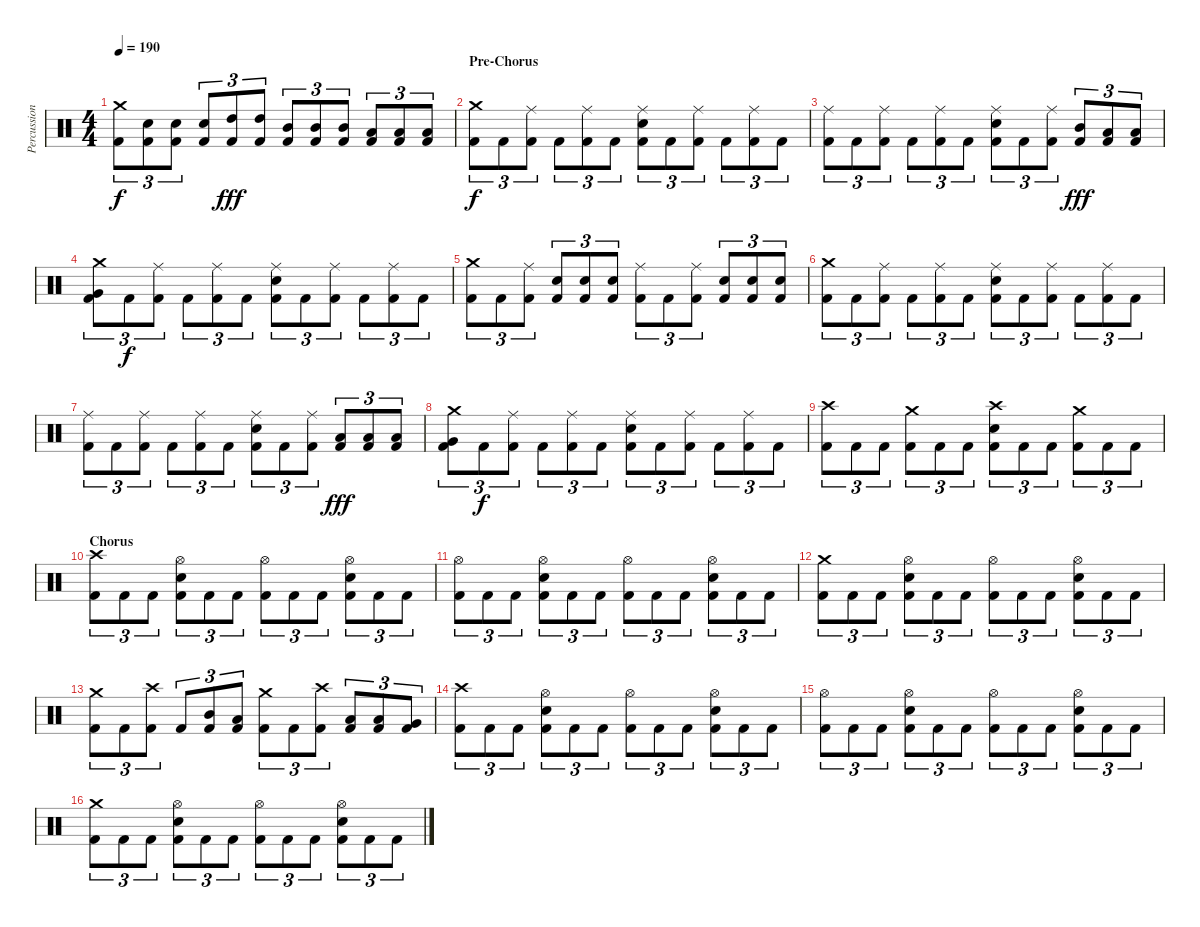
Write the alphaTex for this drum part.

\track ("Percussion" "Percussion") {instrument percussion}
\staff {score}
\articulation defaults
\ts (4 4)
\tempo 190
\clef neutral
\ks c
("Kick (hit) 2" "Crash medium (hit)").8{tu (3 2) dy f} ("Kick (hit) 2" "Electric Snare (hit)").8{tu (3 2)} ("Kick (hit) 2" "Electric Snare (hit)").8{tu (3 2)} ("Kick (hit) 2" "Electric Snare (hit)").8{tu (3 2)} ("Kick (hit) 2" "High Tom (hit)").8{tu (3 2) dy fff} ("Kick (hit) 2" "High Tom (hit)").8{tu (3 2)} ("Kick (hit) 2" "Mid Tom (hit)").8{tu (3 2)} ("Kick (hit) 2" "Mid Tom (hit)").8{tu (3 2)} ("Kick (hit) 2" "Mid Tom (hit)").8{tu (3 2)} ("Kick (hit) 2" "Low Tom (hit)").8{tu (3 2)} ("Kick (hit) 2" "Low Tom (hit)").8{tu (3 2)} ("Kick (hit) 2" "Low Tom (hit)").8{tu (3 2)} |
\section ("" "Pre-Chorus")
("Kick (hit) 2" "Crash medium (hit)").8{tu (3 2) dy f} "Kick (hit) 2".8{tu (3 2)} ("Kick (hit) 2" "Ride (middle)").8{tu (3 2)} "Kick (hit) 2".8{tu (3 2)} ("Kick (hit) 2" "Ride (middle)").8{tu (3 2)} "Kick (hit) 2".8{tu (3 2)} ("Kick (hit) 2" "Electric Snare (hit)" "Ride (middle)").8{tu (3 2)} "Kick (hit) 2".8{tu (3 2)} ("Kick (hit) 2" "Ride (middle)").8{tu (3 2)} "Kick (hit) 2".8{tu (3 2)} ("Kick (hit) 2" "Ride (middle)").8{tu (3 2)} "Kick (hit) 2".8{tu (3 2)} |
("Kick (hit) 2" "Ride (middle)").8{tu (3 2)} "Kick (hit) 2".8{tu (3 2)} ("Kick (hit) 2" "Ride (middle)").8{tu (3 2)} "Kick (hit) 2".8{tu (3 2)} ("Kick (hit) 2" "Ride (middle)").8{tu (3 2)} "Kick (hit) 2".8{tu (3 2)} ("Kick (hit) 2" "Electric Snare (hit)" "Ride (middle)").8{tu (3 2)} "Kick (hit) 2".8{tu (3 2)} ("Kick (hit) 2" "Ride (middle)").8{tu (3 2)} ("Kick (hit) 2" "Mid Tom (hit)").8{tu (3 2) dy fff} ("Kick (hit) 2" "Low Tom (hit)").8{tu (3 2)} ("Kick (hit) 2" "Low Tom (hit)").8{tu (3 2)} |
("Kick (hit) 2" "Very Low Tom (hit)" "Crash medium (hit)").8{tu (3 2)} "Kick (hit) 2".8{tu (3 2) dy f} ("Kick (hit) 2" "Ride (middle)").8{tu (3 2)} "Kick (hit) 2".8{tu (3 2)} ("Kick (hit) 2" "Ride (middle)").8{tu (3 2)} "Kick (hit) 2".8{tu (3 2)} ("Kick (hit) 2" "Electric Snare (hit)" "Ride (middle)").8{tu (3 2)} "Kick (hit) 2".8{tu (3 2)} ("Kick (hit) 2" "Ride (middle)").8{tu (3 2)} "Kick (hit) 2".8{tu (3 2)} ("Kick (hit) 2" "Ride (middle)").8{tu (3 2)} "Kick (hit) 2".8{tu (3 2)} |
("Kick (hit) 2" "Crash medium (hit)").8{tu (3 2)} "Kick (hit) 2".8{tu (3 2)} ("Kick (hit) 2" "Ride (middle)").8{tu (3 2)} ("Kick (hit) 2" "Electric Snare (hit)").8{tu (3 2)} ("Kick (hit) 2" "Electric Snare (hit)").8{tu (3 2)} ("Kick (hit) 2" "Electric Snare (hit)").8{tu (3 2)} ("Kick (hit) 2" "Ride (middle)").8{tu (3 2)} "Kick (hit) 2".8{tu (3 2)} ("Kick (hit) 2" "Ride (middle)").8{tu (3 2)} ("Kick (hit) 2" "Electric Snare (hit)").8{tu (3 2)} ("Kick (hit) 2" "Electric Snare (hit)").8{tu (3 2)} ("Kick (hit) 2" "Electric Snare (hit)").8{tu (3 2)} |
("Kick (hit) 2" "Crash medium (hit)").8{tu (3 2)} "Kick (hit) 2".8{tu (3 2)} ("Kick (hit) 2" "Ride (middle)").8{tu (3 2)} "Kick (hit) 2".8{tu (3 2)} ("Kick (hit) 2" "Ride (middle)").8{tu (3 2)} "Kick (hit) 2".8{tu (3 2)} ("Kick (hit) 2" "Electric Snare (hit)" "Ride (middle)").8{tu (3 2)} "Kick (hit) 2".8{tu (3 2)} ("Kick (hit) 2" "Ride (middle)").8{tu (3 2)} "Kick (hit) 2".8{tu (3 2)} ("Kick (hit) 2" "Ride (middle)").8{tu (3 2)} "Kick (hit) 2".8{tu (3 2)} |
("Kick (hit) 2" "Ride (middle)").8{tu (3 2)} "Kick (hit) 2".8{tu (3 2)} ("Kick (hit) 2" "Ride (middle)").8{tu (3 2)} "Kick (hit) 2".8{tu (3 2)} ("Kick (hit) 2" "Ride (middle)").8{tu (3 2)} "Kick (hit) 2".8{tu (3 2)} ("Kick (hit) 2" "Electric Snare (hit)" "Ride (middle)").8{tu (3 2)} "Kick (hit) 2".8{tu (3 2)} ("Kick (hit) 2" "Ride (middle)").8{tu (3 2)} ("Kick (hit) 2" "Low Tom (hit)").8{tu (3 2) dy fff} ("Kick (hit) 2" "Low Tom (hit)").8{tu (3 2)} ("Kick (hit) 2" "Low Tom (hit)").8{tu (3 2)} |
("Kick (hit) 2" "Very Low Tom (hit)" "Crash medium (hit)").8{tu (3 2)} "Kick (hit) 2".8{tu (3 2) dy f} ("Kick (hit) 2" "Ride (middle)").8{tu (3 2)} "Kick (hit) 2".8{tu (3 2)} ("Kick (hit) 2" "Ride (middle)").8{tu (3 2)} "Kick (hit) 2".8{tu (3 2)} ("Kick (hit) 2" "Electric Snare (hit)" "Ride (middle)").8{tu (3 2)} "Kick (hit) 2".8{tu (3 2)} ("Kick (hit) 2" "Ride (middle)").8{tu (3 2)} "Kick (hit) 2".8{tu (3 2)} ("Kick (hit) 2" "Ride (middle)").8{tu (3 2)} "Kick (hit) 2".8{tu (3 2)} |
("Kick (hit) 2" "Crash high (hit)").8{tu (3 2)} "Kick (hit) 2".8{tu (3 2)} "Kick (hit) 2".8{tu (3 2)} ("Kick (hit) 2" "Crash medium (hit)").8{tu (3 2)} "Kick (hit) 2".8{tu (3 2)} "Kick (hit) 2".8{tu (3 2)} ("Kick (hit) 2" "Electric Snare (hit)" "Crash high (hit)").8{tu (3 2)} "Kick (hit) 2".8{tu (3 2)} "Kick (hit) 2".8{tu (3 2)} ("Kick (hit) 2" "Crash medium (hit)").8{tu (3 2)} "Kick (hit) 2".8{tu (3 2)} "Kick (hit) 2".8{tu (3 2)} |
\section ("" "Chorus")
("Kick (hit) 2" "Crash high (hit)").8{tu (3 2)} "Kick (hit) 2".8{tu (3 2)} "Kick (hit) 2".8{tu (3 2)} ("Kick (hit) 2" "Electric Snare (hit)" "Hi-Hat (open)").8{tu (3 2)} "Kick (hit) 2".8{tu (3 2)} "Kick (hit) 2".8{tu (3 2)} ("Kick (hit) 2" "Hi-Hat (open)").8{tu (3 2)} "Kick (hit) 2".8{tu (3 2)} "Kick (hit) 2".8{tu (3 2)} ("Kick (hit) 2" "Electric Snare (hit)" "Hi-Hat (open)").8{tu (3 2)} "Kick (hit) 2".8{tu (3 2)} "Kick (hit) 2".8{tu (3 2)} |
("Kick (hit) 2" "Hi-Hat (open)").8{tu (3 2)} "Kick (hit) 2".8{tu (3 2)} "Kick (hit) 2".8{tu (3 2)} ("Kick (hit) 2" "Electric Snare (hit)" "Hi-Hat (open)").8{tu (3 2)} "Kick (hit) 2".8{tu (3 2)} "Kick (hit) 2".8{tu (3 2)} ("Kick (hit) 2" "Hi-Hat (open)").8{tu (3 2)} "Kick (hit) 2".8{tu (3 2)} "Kick (hit) 2".8{tu (3 2)} ("Kick (hit) 2" "Electric Snare (hit)" "Hi-Hat (open)").8{tu (3 2)} "Kick (hit) 2".8{tu (3 2)} "Kick (hit) 2".8{tu (3 2)} |
("Kick (hit) 2" "Crash medium (hit)").8{tu (3 2)} "Kick (hit) 2".8{tu (3 2)} "Kick (hit) 2".8{tu (3 2)} ("Kick (hit) 2" "Electric Snare (hit)" "Hi-Hat (open)").8{tu (3 2)} "Kick (hit) 2".8{tu (3 2)} "Kick (hit) 2".8{tu (3 2)} ("Kick (hit) 2" "Hi-Hat (open)").8{tu (3 2)} "Kick (hit) 2".8{tu (3 2)} "Kick (hit) 2".8{tu (3 2)} ("Kick (hit) 2" "Electric Snare (hit)" "Hi-Hat (open)").8{tu (3 2)} "Kick (hit) 2".8{tu (3 2)} "Kick (hit) 2".8{tu (3 2)} |
("Kick (hit) 2" "Crash medium (hit)").8{tu (3 2)} "Kick (hit) 2".8{tu (3 2)} ("Kick (hit) 2" "Crash high (hit)").8{tu (3 2)} "Kick (hit) 2".8{tu (3 2)} ("Kick (hit) 2" "Mid Tom (hit)").8{tu (3 2)} ("Kick (hit) 2" "Low Tom (hit)").8{tu (3 2)} ("Kick (hit) 2" "Crash medium (hit)").8{tu (3 2)} "Kick (hit) 2".8{tu (3 2)} ("Kick (hit) 2" "Crash high (hit)").8{tu (3 2)} ("Kick (hit) 2" "Low Tom (hit)").8{tu (3 2)} ("Kick (hit) 2" "Low Tom (hit)").8{tu (3 2)} ("Kick (hit) 2" "Very Low Tom (hit)").8{tu (3 2)} |
("Kick (hit) 2" "Crash high (hit)").8{tu (3 2)} "Kick (hit) 2".8{tu (3 2)} "Kick (hit) 2".8{tu (3 2)} ("Kick (hit) 2" "Electric Snare (hit)" "Hi-Hat (open)").8{tu (3 2)} "Kick (hit) 2".8{tu (3 2)} "Kick (hit) 2".8{tu (3 2)} ("Kick (hit) 2" "Hi-Hat (open)").8{tu (3 2)} "Kick (hit) 2".8{tu (3 2)} "Kick (hit) 2".8{tu (3 2)} ("Kick (hit) 2" "Electric Snare (hit)" "Hi-Hat (open)").8{tu (3 2)} "Kick (hit) 2".8{tu (3 2)} "Kick (hit) 2".8{tu (3 2)} |
("Kick (hit) 2" "Hi-Hat (open)").8{tu (3 2)} "Kick (hit) 2".8{tu (3 2)} "Kick (hit) 2".8{tu (3 2)} ("Kick (hit) 2" "Electric Snare (hit)" "Hi-Hat (open)").8{tu (3 2)} "Kick (hit) 2".8{tu (3 2)} "Kick (hit) 2".8{tu (3 2)} ("Kick (hit) 2" "Hi-Hat (open)").8{tu (3 2)} "Kick (hit) 2".8{tu (3 2)} "Kick (hit) 2".8{tu (3 2)} ("Kick (hit) 2" "Electric Snare (hit)" "Hi-Hat (open)").8{tu (3 2)} "Kick (hit) 2".8{tu (3 2)} "Kick (hit) 2".8{tu (3 2)} |
("Kick (hit) 2" "Crash medium (hit)").8{tu (3 2)} "Kick (hit) 2".8{tu (3 2)} "Kick (hit) 2".8{tu (3 2)} ("Kick (hit) 2" "Electric Snare (hit)" "Hi-Hat (open)").8{tu (3 2)} "Kick (hit) 2".8{tu (3 2)} "Kick (hit) 2".8{tu (3 2)} ("Kick (hit) 2" "Hi-Hat (open)").8{tu (3 2)} "Kick (hit) 2".8{tu (3 2)} "Kick (hit) 2".8{tu (3 2)} ("Kick (hit) 2" "Electric Snare (hit)" "Hi-Hat (open)").8{tu (3 2)} "Kick (hit) 2".8{tu (3 2)} "Kick (hit) 2".8{tu (3 2)}
